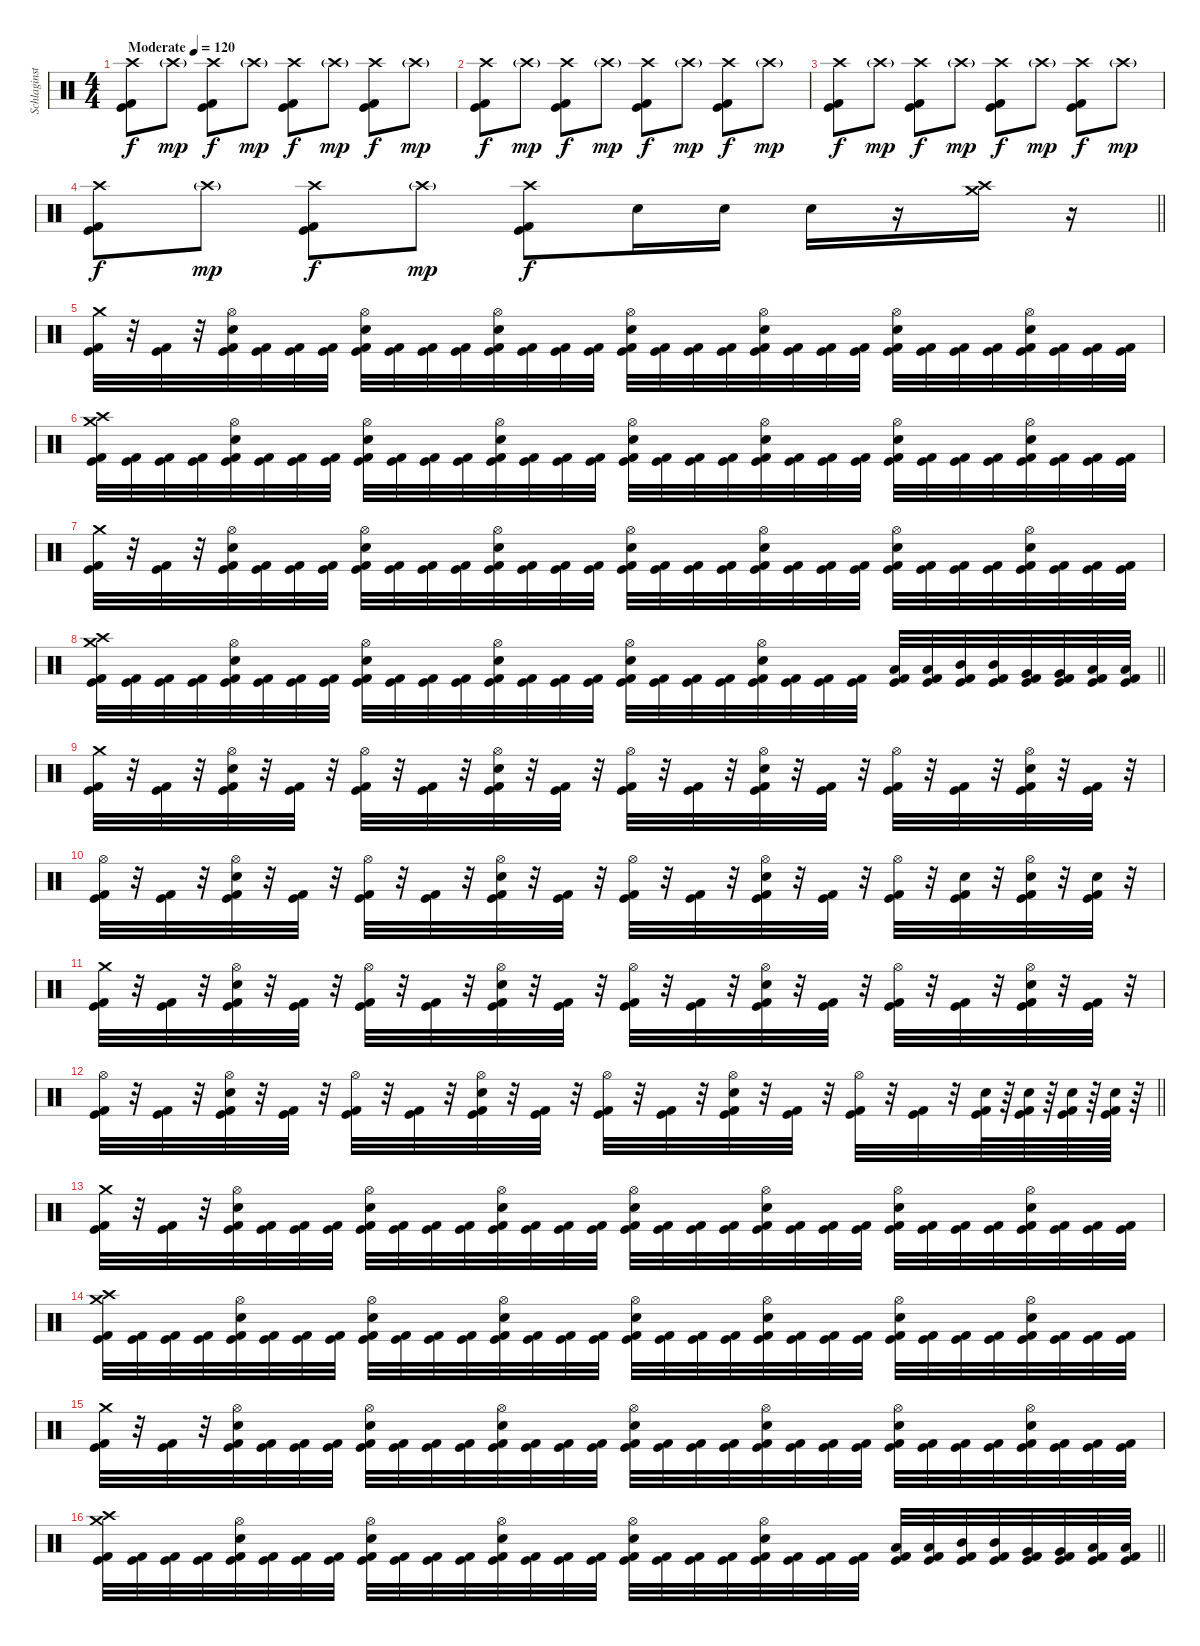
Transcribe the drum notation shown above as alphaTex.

\track ("Schlaginstrumente - Auswahl" "Schlaginst") {instrument percussion}
\staff {score}
\articulation defaults
\ts (4 4)
\tempo (120 "Moderate")
\clef neutral
\ks c
("Crash high (hit)" "Kick (hit)" "Kick (hit) 2").8{dy f} "Crash high (hit)"{g}.8{dy mp} ("Crash high (hit)" "Kick (hit)" "Kick (hit) 2").8{dy f} "Crash high (hit)"{g}.8{dy mp} ("Crash high (hit)" "Kick (hit)" "Kick (hit) 2").8{dy f} "Crash high (hit)"{g}.8{dy mp} ("Crash high (hit)" "Kick (hit)" "Kick (hit) 2").8{dy f} "Crash high (hit)"{g}.8{dy mp} |
("Crash high (hit)" "Kick (hit)" "Kick (hit) 2").8{dy f} "Crash high (hit)"{g}.8{dy mp} ("Crash high (hit)" "Kick (hit)" "Kick (hit) 2").8{dy f} "Crash high (hit)"{g}.8{dy mp} ("Crash high (hit)" "Kick (hit)" "Kick (hit) 2").8{dy f} "Crash high (hit)"{g}.8{dy mp} ("Crash high (hit)" "Kick (hit)" "Kick (hit) 2").8{dy f} "Crash high (hit)"{g}.8{dy mp} |
("Crash high (hit)" "Kick (hit)" "Kick (hit) 2").8{dy f} "Crash high (hit)"{g}.8{dy mp} ("Crash high (hit)" "Kick (hit)" "Kick (hit) 2").8{dy f} "Crash high (hit)"{g}.8{dy mp} ("Crash high (hit)" "Kick (hit)" "Kick (hit) 2").8{dy f} "Crash high (hit)"{g}.8{dy mp} ("Crash high (hit)" "Kick (hit)" "Kick (hit) 2").8{dy f} "Crash high (hit)"{g}.8{dy mp} |
\barLineRight lightlight
("Crash high (hit)" "Kick (hit)" "Kick (hit) 2").8{dy f} "Crash high (hit)"{g}.8{dy mp} ("Crash high (hit)" "Kick (hit)" "Kick (hit) 2").8{dy f} "Crash high (hit)"{g}.8{dy mp} ("Crash high (hit)" "Kick (hit)" "Kick (hit) 2").8{dy f} "Electric Snare (hit)".16 "Electric Snare (hit)".16 "Electric Snare (hit)".16 r.16 ("Crash high (hit)" "Crash medium (hit)").16 r.16 |
("Crash medium (hit)" "Kick (hit)" "Kick (hit) 2").32 r.32 ("Kick (hit)" "Kick (hit) 2").32 r.32 ("Hi-Hat (open)" "Electric Snare (hit)" "Kick (hit)" "Kick (hit) 2").32 ("Kick (hit)" "Kick (hit) 2").32 ("Kick (hit)" "Kick (hit) 2").32 ("Kick (hit)" "Kick (hit) 2").32 ("Hi-Hat (open)" "Electric Snare (hit)" "Kick (hit)" "Kick (hit) 2").32 ("Kick (hit)" "Kick (hit) 2").32 ("Kick (hit)" "Kick (hit) 2").32 ("Kick (hit)" "Kick (hit) 2").32 ("Hi-Hat (open)" "Electric Snare (hit)" "Kick (hit)" "Kick (hit) 2").32 ("Kick (hit)" "Kick (hit) 2").32 ("Kick (hit)" "Kick (hit) 2").32 ("Kick (hit)" "Kick (hit) 2").32 ("Hi-Hat (open)" "Electric Snare (hit)" "Kick (hit)" "Kick (hit) 2").32 ("Kick (hit)" "Kick (hit) 2").32 ("Kick (hit)" "Kick (hit) 2").32 ("Kick (hit)" "Kick (hit) 2").32 ("Hi-Hat (open)" "Electric Snare (hit)" "Kick (hit)" "Kick (hit) 2").32 ("Kick (hit)" "Kick (hit) 2").32 ("Kick (hit)" "Kick (hit) 2").32 ("Kick (hit)" "Kick (hit) 2").32 ("Hi-Hat (open)" "Electric Snare (hit)" "Kick (hit)" "Kick (hit) 2").32 ("Kick (hit)" "Kick (hit) 2").32 ("Kick (hit)" "Kick (hit) 2").32 ("Kick (hit)" "Kick (hit) 2").32 ("Hi-Hat (open)" "Electric Snare (hit)" "Kick (hit)" "Kick (hit) 2").32 ("Kick (hit)" "Kick (hit) 2").32 ("Kick (hit)" "Kick (hit) 2").32 ("Kick (hit)" "Kick (hit) 2").32 |
("Crash medium (hit)" "Crash high (hit)" "Kick (hit)" "Kick (hit) 2").32 ("Kick (hit)" "Kick (hit) 2").32 ("Kick (hit)" "Kick (hit) 2").32 ("Kick (hit)" "Kick (hit) 2").32 ("Hi-Hat (open)" "Electric Snare (hit)" "Kick (hit)" "Kick (hit) 2").32 ("Kick (hit)" "Kick (hit) 2").32 ("Kick (hit)" "Kick (hit) 2").32 ("Kick (hit)" "Kick (hit) 2").32 ("Hi-Hat (open)" "Electric Snare (hit)" "Kick (hit)" "Kick (hit) 2").32 ("Kick (hit)" "Kick (hit) 2").32 ("Kick (hit)" "Kick (hit) 2").32 ("Kick (hit)" "Kick (hit) 2").32 ("Hi-Hat (open)" "Electric Snare (hit)" "Kick (hit)" "Kick (hit) 2").32 ("Kick (hit)" "Kick (hit) 2").32 ("Kick (hit)" "Kick (hit) 2").32 ("Kick (hit)" "Kick (hit) 2").32 ("Hi-Hat (open)" "Electric Snare (hit)" "Kick (hit)" "Kick (hit) 2").32 ("Kick (hit)" "Kick (hit) 2").32 ("Kick (hit)" "Kick (hit) 2").32 ("Kick (hit)" "Kick (hit) 2").32 ("Hi-Hat (open)" "Electric Snare (hit)" "Kick (hit)" "Kick (hit) 2").32 ("Kick (hit)" "Kick (hit) 2").32 ("Kick (hit)" "Kick (hit) 2").32 ("Kick (hit)" "Kick (hit) 2").32 ("Hi-Hat (open)" "Electric Snare (hit)" "Kick (hit)" "Kick (hit) 2").32 ("Kick (hit)" "Kick (hit) 2").32 ("Kick (hit)" "Kick (hit) 2").32 ("Kick (hit)" "Kick (hit) 2").32 ("Hi-Hat (open)" "Electric Snare (hit)" "Kick (hit)" "Kick (hit) 2").32 ("Kick (hit)" "Kick (hit) 2").32 ("Kick (hit)" "Kick (hit) 2").32 ("Kick (hit)" "Kick (hit) 2").32 |
("Crash medium (hit)" "Kick (hit)" "Kick (hit) 2").32 r.32 ("Kick (hit)" "Kick (hit) 2").32 r.32 ("Hi-Hat (open)" "Electric Snare (hit)" "Kick (hit)" "Kick (hit) 2").32 ("Kick (hit)" "Kick (hit) 2").32 ("Kick (hit)" "Kick (hit) 2").32 ("Kick (hit)" "Kick (hit) 2").32 ("Hi-Hat (open)" "Electric Snare (hit)" "Kick (hit)" "Kick (hit) 2").32 ("Kick (hit)" "Kick (hit) 2").32 ("Kick (hit)" "Kick (hit) 2").32 ("Kick (hit)" "Kick (hit) 2").32 ("Hi-Hat (open)" "Electric Snare (hit)" "Kick (hit)" "Kick (hit) 2").32 ("Kick (hit)" "Kick (hit) 2").32 ("Kick (hit)" "Kick (hit) 2").32 ("Kick (hit)" "Kick (hit) 2").32 ("Hi-Hat (open)" "Electric Snare (hit)" "Kick (hit)" "Kick (hit) 2").32 ("Kick (hit)" "Kick (hit) 2").32 ("Kick (hit)" "Kick (hit) 2").32 ("Kick (hit)" "Kick (hit) 2").32 ("Hi-Hat (open)" "Electric Snare (hit)" "Kick (hit)" "Kick (hit) 2").32 ("Kick (hit)" "Kick (hit) 2").32 ("Kick (hit)" "Kick (hit) 2").32 ("Kick (hit)" "Kick (hit) 2").32 ("Hi-Hat (open)" "Electric Snare (hit)" "Kick (hit)" "Kick (hit) 2").32 ("Kick (hit)" "Kick (hit) 2").32 ("Kick (hit)" "Kick (hit) 2").32 ("Kick (hit)" "Kick (hit) 2").32 ("Hi-Hat (open)" "Electric Snare (hit)" "Kick (hit)" "Kick (hit) 2").32 ("Kick (hit)" "Kick (hit) 2").32 ("Kick (hit)" "Kick (hit) 2").32 ("Kick (hit)" "Kick (hit) 2").32 |
\barLineRight lightlight
("Crash medium (hit)" "Crash high (hit)" "Kick (hit)" "Kick (hit) 2").32 ("Kick (hit)" "Kick (hit) 2").32 ("Kick (hit)" "Kick (hit) 2").32 ("Kick (hit)" "Kick (hit) 2").32 ("Hi-Hat (open)" "Electric Snare (hit)" "Kick (hit)" "Kick (hit) 2").32 ("Kick (hit)" "Kick (hit) 2").32 ("Kick (hit)" "Kick (hit) 2").32 ("Kick (hit)" "Kick (hit) 2").32 ("Hi-Hat (open)" "Electric Snare (hit)" "Kick (hit)" "Kick (hit) 2").32 ("Kick (hit)" "Kick (hit) 2").32 ("Kick (hit)" "Kick (hit) 2").32 ("Kick (hit)" "Kick (hit) 2").32 ("Hi-Hat (open)" "Electric Snare (hit)" "Kick (hit)" "Kick (hit) 2").32 ("Kick (hit)" "Kick (hit) 2").32 ("Kick (hit)" "Kick (hit) 2").32 ("Kick (hit)" "Kick (hit) 2").32 ("Hi-Hat (open)" "Electric Snare (hit)" "Kick (hit)" "Kick (hit) 2").32 ("Kick (hit)" "Kick (hit) 2").32 ("Kick (hit)" "Kick (hit) 2").32 ("Kick (hit)" "Kick (hit) 2").32 ("Hi-Hat (open)" "Electric Snare (hit)" "Kick (hit)" "Kick (hit) 2").32 ("Kick (hit)" "Kick (hit) 2").32 ("Kick (hit)" "Kick (hit) 2").32 ("Kick (hit)" "Kick (hit) 2").32 ("Low Tom (hit)" "Kick (hit)" "Kick (hit) 2").32 ("Low Tom (hit)" "Kick (hit)" "Kick (hit) 2").32 ("Mid Tom (hit)" "Kick (hit)" "Kick (hit) 2").32 ("Mid Tom (hit)" "Kick (hit)" "Kick (hit) 2").32 ("Very Low Tom (hit)" "Kick (hit)" "Kick (hit) 2").32 ("Very Low Tom (hit)" "Kick (hit)" "Kick (hit) 2").32 ("Low Floor Tom (hit)" "Kick (hit)" "Kick (hit) 2").32 ("Low Floor Tom (hit)" "Kick (hit)" "Kick (hit) 2").32 |
("Crash medium (hit)" "Kick (hit)" "Kick (hit) 2").32 r.32 ("Kick (hit)" "Kick (hit) 2").32 r.32 ("Hi-Hat (open)" "Electric Snare (hit)" "Kick (hit)" "Kick (hit) 2").32 r.32 ("Kick (hit)" "Kick (hit) 2").32 r.32 ("Hi-Hat (open)" "Kick (hit)" "Kick (hit) 2").32 r.32 ("Kick (hit)" "Kick (hit) 2").32 r.32 ("Hi-Hat (open)" "Electric Snare (hit)" "Kick (hit)" "Kick (hit) 2").32 r.32 ("Kick (hit)" "Kick (hit) 2").32 r.32 ("Hi-Hat (open)" "Kick (hit)" "Kick (hit) 2").32 r.32 ("Kick (hit)" "Kick (hit) 2").32 r.32 ("Hi-Hat (open)" "Electric Snare (hit)" "Kick (hit)" "Kick (hit) 2").32 r.32 ("Kick (hit)" "Kick (hit) 2").32 r.32 ("Hi-Hat (open)" "Kick (hit)" "Kick (hit) 2").32 r.32 ("Kick (hit)" "Kick (hit) 2").32 r.32 ("Hi-Hat (open)" "Electric Snare (hit)" "Kick (hit)" "Kick (hit) 2").32 r.32 ("Kick (hit)" "Kick (hit) 2").32 r.32 |
("Hi-Hat (open)" "Kick (hit)" "Kick (hit) 2").32 r.32 ("Kick (hit)" "Kick (hit) 2").32 r.32 ("Hi-Hat (open)" "Electric Snare (hit)" "Kick (hit)" "Kick (hit) 2").32 r.32 ("Kick (hit)" "Kick (hit) 2").32 r.32 ("Hi-Hat (open)" "Kick (hit)" "Kick (hit) 2").32 r.32 ("Kick (hit)" "Kick (hit) 2").32 r.32 ("Hi-Hat (open)" "Electric Snare (hit)" "Kick (hit)" "Kick (hit) 2").32 r.32 ("Kick (hit)" "Kick (hit) 2").32 r.32 ("Hi-Hat (open)" "Kick (hit)" "Kick (hit) 2").32 r.32 ("Kick (hit)" "Kick (hit) 2").32 r.32 ("Hi-Hat (open)" "Electric Snare (hit)" "Kick (hit)" "Kick (hit) 2").32 r.32 ("Kick (hit)" "Kick (hit) 2").32 r.32 ("Hi-Hat (open)" "Kick (hit)" "Kick (hit) 2").32 r.32 ("Electric Snare (hit)" "Kick (hit)" "Kick (hit) 2").32 r.32 ("Hi-Hat (open)" "Electric Snare (hit)" "Kick (hit)" "Kick (hit) 2").32 r.32 ("Electric Snare (hit)" "Kick (hit)" "Kick (hit) 2").32 r.32 |
("Crash medium (hit)" "Kick (hit)" "Kick (hit) 2").32 r.32 ("Kick (hit)" "Kick (hit) 2").32 r.32 ("Hi-Hat (open)" "Electric Snare (hit)" "Kick (hit)" "Kick (hit) 2").32 r.32 ("Kick (hit)" "Kick (hit) 2").32 r.32 ("Hi-Hat (open)" "Kick (hit)" "Kick (hit) 2").32 r.32 ("Kick (hit)" "Kick (hit) 2").32 r.32 ("Hi-Hat (open)" "Electric Snare (hit)" "Kick (hit)" "Kick (hit) 2").32 r.32 ("Kick (hit)" "Kick (hit) 2").32 r.32 ("Hi-Hat (open)" "Kick (hit)" "Kick (hit) 2").32 r.32 ("Kick (hit)" "Kick (hit) 2").32 r.32 ("Hi-Hat (open)" "Electric Snare (hit)" "Kick (hit)" "Kick (hit) 2").32 r.32 ("Kick (hit)" "Kick (hit) 2").32 r.32 ("Hi-Hat (open)" "Kick (hit)" "Kick (hit) 2").32 r.32 ("Kick (hit)" "Kick (hit) 2").32 r.32 ("Hi-Hat (open)" "Electric Snare (hit)" "Kick (hit)" "Kick (hit) 2").32 r.32 ("Kick (hit)" "Kick (hit) 2").32 r.32 |
\barLineRight lightlight
("Hi-Hat (open)" "Kick (hit)" "Kick (hit) 2").32 r.32 ("Kick (hit)" "Kick (hit) 2").32 r.32 ("Hi-Hat (open)" "Electric Snare (hit)" "Kick (hit)" "Kick (hit) 2").32 r.32 ("Kick (hit)" "Kick (hit) 2").32 r.32 ("Hi-Hat (open)" "Kick (hit)" "Kick (hit) 2").32 r.32 ("Kick (hit)" "Kick (hit) 2").32 r.32 ("Hi-Hat (open)" "Electric Snare (hit)" "Kick (hit)" "Kick (hit) 2").32 r.32 ("Kick (hit)" "Kick (hit) 2").32 r.32 ("Hi-Hat (open)" "Kick (hit)" "Kick (hit) 2").32 r.32 ("Kick (hit)" "Kick (hit) 2").32 r.32 ("Hi-Hat (open)" "Electric Snare (hit)" "Kick (hit)" "Kick (hit) 2").32 r.32 ("Kick (hit)" "Kick (hit) 2").32 r.32 ("Hi-Hat (open)" "Kick (hit)" "Kick (hit) 2").32 r.32 ("Kick (hit)" "Kick (hit) 2").32 r.32 ("Electric Snare (hit)" "Kick (hit)" "Kick (hit) 2").64 r.64 ("Electric Snare (hit)" "Kick (hit)" "Kick (hit) 2").64 r.64 ("Electric Snare (hit)" "Kick (hit)" "Kick (hit) 2").64 r.64 ("Electric Snare (hit)" "Kick (hit)" "Kick (hit) 2").64 r.64 |
("Crash medium (hit)" "Kick (hit)" "Kick (hit) 2").32 r.32 ("Kick (hit)" "Kick (hit) 2").32 r.32 ("Hi-Hat (open)" "Electric Snare (hit)" "Kick (hit)" "Kick (hit) 2").32 ("Kick (hit)" "Kick (hit) 2").32 ("Kick (hit)" "Kick (hit) 2").32 ("Kick (hit)" "Kick (hit) 2").32 ("Hi-Hat (open)" "Electric Snare (hit)" "Kick (hit)" "Kick (hit) 2").32 ("Kick (hit)" "Kick (hit) 2").32 ("Kick (hit)" "Kick (hit) 2").32 ("Kick (hit)" "Kick (hit) 2").32 ("Hi-Hat (open)" "Electric Snare (hit)" "Kick (hit)" "Kick (hit) 2").32 ("Kick (hit)" "Kick (hit) 2").32 ("Kick (hit)" "Kick (hit) 2").32 ("Kick (hit)" "Kick (hit) 2").32 ("Hi-Hat (open)" "Electric Snare (hit)" "Kick (hit)" "Kick (hit) 2").32 ("Kick (hit)" "Kick (hit) 2").32 ("Kick (hit)" "Kick (hit) 2").32 ("Kick (hit)" "Kick (hit) 2").32 ("Hi-Hat (open)" "Electric Snare (hit)" "Kick (hit)" "Kick (hit) 2").32 ("Kick (hit)" "Kick (hit) 2").32 ("Kick (hit)" "Kick (hit) 2").32 ("Kick (hit)" "Kick (hit) 2").32 ("Hi-Hat (open)" "Electric Snare (hit)" "Kick (hit)" "Kick (hit) 2").32 ("Kick (hit)" "Kick (hit) 2").32 ("Kick (hit)" "Kick (hit) 2").32 ("Kick (hit)" "Kick (hit) 2").32 ("Hi-Hat (open)" "Electric Snare (hit)" "Kick (hit)" "Kick (hit) 2").32 ("Kick (hit)" "Kick (hit) 2").32 ("Kick (hit)" "Kick (hit) 2").32 ("Kick (hit)" "Kick (hit) 2").32 |
("Crash medium (hit)" "Crash high (hit)" "Kick (hit)" "Kick (hit) 2").32 ("Kick (hit)" "Kick (hit) 2").32 ("Kick (hit)" "Kick (hit) 2").32 ("Kick (hit)" "Kick (hit) 2").32 ("Hi-Hat (open)" "Electric Snare (hit)" "Kick (hit)" "Kick (hit) 2").32 ("Kick (hit)" "Kick (hit) 2").32 ("Kick (hit)" "Kick (hit) 2").32 ("Kick (hit)" "Kick (hit) 2").32 ("Hi-Hat (open)" "Electric Snare (hit)" "Kick (hit)" "Kick (hit) 2").32 ("Kick (hit)" "Kick (hit) 2").32 ("Kick (hit)" "Kick (hit) 2").32 ("Kick (hit)" "Kick (hit) 2").32 ("Hi-Hat (open)" "Electric Snare (hit)" "Kick (hit)" "Kick (hit) 2").32 ("Kick (hit)" "Kick (hit) 2").32 ("Kick (hit)" "Kick (hit) 2").32 ("Kick (hit)" "Kick (hit) 2").32 ("Hi-Hat (open)" "Electric Snare (hit)" "Kick (hit)" "Kick (hit) 2").32 ("Kick (hit)" "Kick (hit) 2").32 ("Kick (hit)" "Kick (hit) 2").32 ("Kick (hit)" "Kick (hit) 2").32 ("Hi-Hat (open)" "Electric Snare (hit)" "Kick (hit)" "Kick (hit) 2").32 ("Kick (hit)" "Kick (hit) 2").32 ("Kick (hit)" "Kick (hit) 2").32 ("Kick (hit)" "Kick (hit) 2").32 ("Hi-Hat (open)" "Electric Snare (hit)" "Kick (hit)" "Kick (hit) 2").32 ("Kick (hit)" "Kick (hit) 2").32 ("Kick (hit)" "Kick (hit) 2").32 ("Kick (hit)" "Kick (hit) 2").32 ("Hi-Hat (open)" "Electric Snare (hit)" "Kick (hit)" "Kick (hit) 2").32 ("Kick (hit)" "Kick (hit) 2").32 ("Kick (hit)" "Kick (hit) 2").32 ("Kick (hit)" "Kick (hit) 2").32 |
("Crash medium (hit)" "Kick (hit)" "Kick (hit) 2").32 r.32 ("Kick (hit)" "Kick (hit) 2").32 r.32 ("Hi-Hat (open)" "Electric Snare (hit)" "Kick (hit)" "Kick (hit) 2").32 ("Kick (hit)" "Kick (hit) 2").32 ("Kick (hit)" "Kick (hit) 2").32 ("Kick (hit)" "Kick (hit) 2").32 ("Hi-Hat (open)" "Electric Snare (hit)" "Kick (hit)" "Kick (hit) 2").32 ("Kick (hit)" "Kick (hit) 2").32 ("Kick (hit)" "Kick (hit) 2").32 ("Kick (hit)" "Kick (hit) 2").32 ("Hi-Hat (open)" "Electric Snare (hit)" "Kick (hit)" "Kick (hit) 2").32 ("Kick (hit)" "Kick (hit) 2").32 ("Kick (hit)" "Kick (hit) 2").32 ("Kick (hit)" "Kick (hit) 2").32 ("Hi-Hat (open)" "Electric Snare (hit)" "Kick (hit)" "Kick (hit) 2").32 ("Kick (hit)" "Kick (hit) 2").32 ("Kick (hit)" "Kick (hit) 2").32 ("Kick (hit)" "Kick (hit) 2").32 ("Hi-Hat (open)" "Electric Snare (hit)" "Kick (hit)" "Kick (hit) 2").32 ("Kick (hit)" "Kick (hit) 2").32 ("Kick (hit)" "Kick (hit) 2").32 ("Kick (hit)" "Kick (hit) 2").32 ("Hi-Hat (open)" "Electric Snare (hit)" "Kick (hit)" "Kick (hit) 2").32 ("Kick (hit)" "Kick (hit) 2").32 ("Kick (hit)" "Kick (hit) 2").32 ("Kick (hit)" "Kick (hit) 2").32 ("Hi-Hat (open)" "Electric Snare (hit)" "Kick (hit)" "Kick (hit) 2").32 ("Kick (hit)" "Kick (hit) 2").32 ("Kick (hit)" "Kick (hit) 2").32 ("Kick (hit)" "Kick (hit) 2").32 |
\barLineRight lightlight
("Crash medium (hit)" "Crash high (hit)" "Kick (hit)" "Kick (hit) 2").32 ("Kick (hit)" "Kick (hit) 2").32 ("Kick (hit)" "Kick (hit) 2").32 ("Kick (hit)" "Kick (hit) 2").32 ("Hi-Hat (open)" "Electric Snare (hit)" "Kick (hit)" "Kick (hit) 2").32 ("Kick (hit)" "Kick (hit) 2").32 ("Kick (hit)" "Kick (hit) 2").32 ("Kick (hit)" "Kick (hit) 2").32 ("Hi-Hat (open)" "Electric Snare (hit)" "Kick (hit)" "Kick (hit) 2").32 ("Kick (hit)" "Kick (hit) 2").32 ("Kick (hit)" "Kick (hit) 2").32 ("Kick (hit)" "Kick (hit) 2").32 ("Hi-Hat (open)" "Electric Snare (hit)" "Kick (hit)" "Kick (hit) 2").32 ("Kick (hit)" "Kick (hit) 2").32 ("Kick (hit)" "Kick (hit) 2").32 ("Kick (hit)" "Kick (hit) 2").32 ("Hi-Hat (open)" "Electric Snare (hit)" "Kick (hit)" "Kick (hit) 2").32 ("Kick (hit)" "Kick (hit) 2").32 ("Kick (hit)" "Kick (hit) 2").32 ("Kick (hit)" "Kick (hit) 2").32 ("Hi-Hat (open)" "Electric Snare (hit)" "Kick (hit)" "Kick (hit) 2").32 ("Kick (hit)" "Kick (hit) 2").32 ("Kick (hit)" "Kick (hit) 2").32 ("Kick (hit)" "Kick (hit) 2").32 ("Low Tom (hit)" "Kick (hit)" "Kick (hit) 2").32 ("Low Tom (hit)" "Kick (hit)" "Kick (hit) 2").32 ("Mid Tom (hit)" "Kick (hit)" "Kick (hit) 2").32 ("Mid Tom (hit)" "Kick (hit)" "Kick (hit) 2").32 ("Very Low Tom (hit)" "Kick (hit)" "Kick (hit) 2").32 ("Very Low Tom (hit)" "Kick (hit)" "Kick (hit) 2").32 ("Low Floor Tom (hit)" "Kick (hit)" "Kick (hit) 2").32 ("Low Floor Tom (hit)" "Kick (hit)" "Kick (hit) 2").32
